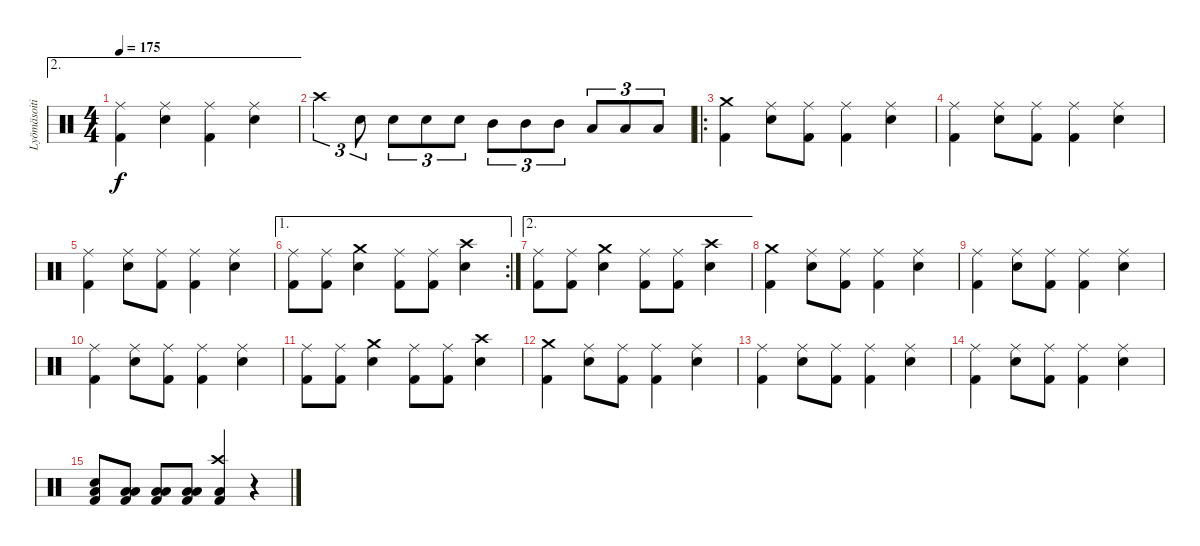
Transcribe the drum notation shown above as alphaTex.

\track ("Lyömäsoitin" "Lyömäsoiti") {instrument percussion}
\staff {score}
\articulation defaults
\ae 2
\ts (4 4)
\tempo 175
\clef neutral
\ks c
("Ride (middle)" "Kick (hit) 2").4{dy f} ("Ride (middle)" "Snare (hit) 2").4 ("Ride (middle)" "Kick (hit) 2").4 ("Ride (middle)" "Snare (hit) 2").4 |
"Crash high (hit)".4{tu (3 2)} "Snare (hit) 2".8{tu (3 2)} "Snare (hit) 2".8{tu (3 2)} "Snare (hit) 2".8{tu (3 2)} "Snare (hit) 2".8{tu (3 2)} "Mid Tom (hit)".8{tu (3 2)} "Mid Tom (hit)".8{tu (3 2)} "Mid Tom (hit)".8{tu (3 2)} "Low Tom (hit)".8{tu (3 2)} "Low Tom (hit)".8{tu (3 2)} "Low Tom (hit)".8{tu (3 2)} |
\ro
("Crash medium (hit)" "Kick (hit) 2").4 ("Ride (middle)" "Snare (hit) 2").8 ("Ride (middle)" "Kick (hit) 2").8 ("Ride (middle)" "Kick (hit) 2").4 ("Ride (middle)" "Snare (hit) 2").4 |
("Ride (middle)" "Kick (hit) 2").4 ("Ride (middle)" "Snare (hit) 2").8 ("Ride (middle)" "Kick (hit) 2").8 ("Ride (middle)" "Kick (hit) 2").4 ("Ride (middle)" "Snare (hit) 2").4 |
("Ride (middle)" "Kick (hit) 2").4 ("Ride (middle)" "Snare (hit) 2").8 ("Ride (middle)" "Kick (hit) 2").8 ("Ride (middle)" "Kick (hit) 2").4 ("Ride (middle)" "Snare (hit) 2").4 |
\ae 1
\rc 2
("Ride (middle)" "Kick (hit) 2").8 ("Ride (middle)" "Kick (hit) 2").8 ("Crash medium (hit)" "Snare (hit) 2").4 ("Ride (middle)" "Kick (hit) 2").8 ("Ride (middle)" "Kick (hit) 2").8 ("Crash high (hit)" "Snare (hit) 2").4 |
\ae 2
("Ride (middle)" "Kick (hit) 2").8 ("Ride (middle)" "Kick (hit) 2").8 ("Crash medium (hit)" "Snare (hit) 2").4 ("Ride (middle)" "Kick (hit) 2").8 ("Ride (middle)" "Kick (hit) 2").8 ("Crash high (hit)" "Snare (hit) 2").4 |
("Crash medium (hit)" "Kick (hit) 2").4 ("Ride (middle)" "Snare (hit) 2").8 ("Ride (middle)" "Kick (hit) 2").8 ("Ride (middle)" "Kick (hit) 2").4 ("Ride (middle)" "Snare (hit) 2").4 |
("Ride (middle)" "Kick (hit) 2").4 ("Ride (middle)" "Snare (hit) 2").8 ("Ride (middle)" "Kick (hit) 2").8 ("Ride (middle)" "Kick (hit) 2").4 ("Ride (middle)" "Snare (hit) 2").4 |
("Ride (middle)" "Kick (hit) 2").4 ("Ride (middle)" "Snare (hit) 2").8 ("Ride (middle)" "Kick (hit) 2").8 ("Ride (middle)" "Kick (hit) 2").4 ("Ride (middle)" "Snare (hit) 2").4 |
("Ride (middle)" "Kick (hit) 2").8 ("Ride (middle)" "Kick (hit) 2").8 ("Crash medium (hit)" "Snare (hit) 2").4 ("Ride (middle)" "Kick (hit) 2").8 ("Ride (middle)" "Kick (hit) 2").8 ("Crash high (hit)" "Snare (hit) 2").4 |
("Crash medium (hit)" "Kick (hit) 2").4 ("Ride (middle)" "Snare (hit) 2").8 ("Ride (middle)" "Kick (hit) 2").8 ("Ride (middle)" "Kick (hit) 2").4 ("Ride (middle)" "Snare (hit) 2").4 |
("Ride (middle)" "Kick (hit) 2").4 ("Ride (middle)" "Snare (hit) 2").8 ("Ride (middle)" "Kick (hit) 2").8 ("Ride (middle)" "Kick (hit) 2").4 ("Ride (middle)" "Snare (hit) 2").4 |
("Ride (middle)" "Kick (hit) 2").4 ("Ride (middle)" "Snare (hit) 2").8 ("Ride (middle)" "Kick (hit) 2").8 ("Ride (middle)" "Kick (hit) 2").4 ("Ride (middle)" "Snare (hit) 2").4 |
("Low Floor Tom (hit)" "Snare (hit) 2" "Kick (hit) 2").8 ("Low Floor Tom (hit)" "Low Floor Tom (hit)" "Kick (hit) 2").8 ("Low Floor Tom (hit)" "Low Floor Tom (hit)" "Kick (hit) 2").8 ("Low Floor Tom (hit)" "Low Floor Tom (hit)" "Kick (hit) 2").8 ("Crash high (hit)" "Low Floor Tom (hit)" "Kick (hit) 2").4 r.4
